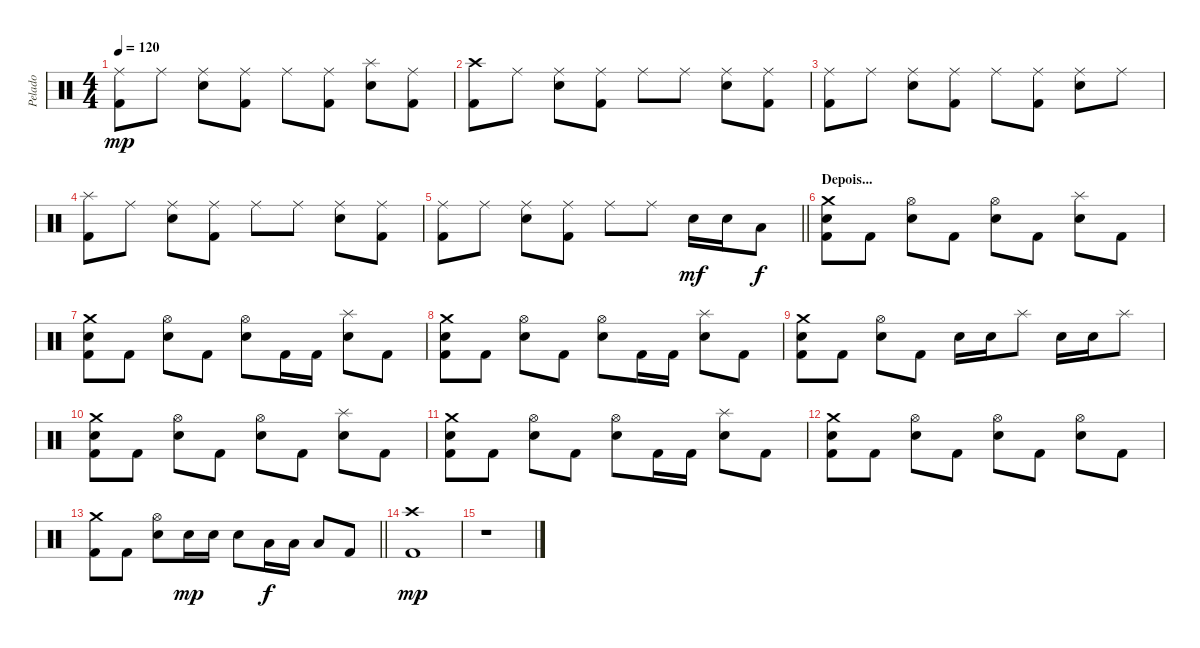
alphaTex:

\track ("Pelado" "Pelado") {instrument percussion}
\staff {score}
\articulation defaults
\ts (4 4)
\tempo 120
\clef neutral
\ks c
("Ride (middle)" "Kick (hit) 2").8{dy mp} "Ride (middle)".8 ("Ride (middle)" "Electric Snare (hit)").8 ("Ride (middle)" "Kick (hit) 2").8 "Ride (middle)".8 ("Ride (middle)" "Kick (hit) 2").8 ("Splash (hit)" "Electric Snare (hit)").8 ("Ride (middle)" "Kick (hit) 2").8 |
("Crash high (hit)" "Kick (hit) 2").8 "Ride (middle)".8 ("Ride (middle)" "Electric Snare (hit)").8 ("Ride (middle)" "Kick (hit) 2").8 "Ride (middle)".8 "Ride (middle)".8 ("Ride (middle)" "Electric Snare (hit)").8 ("Ride (middle)" "Kick (hit) 2").8 |
("Ride (middle)" "Kick (hit) 2").8 "Ride (middle)".8 ("Ride (middle)" "Electric Snare (hit)").8 ("Ride (middle)" "Kick (hit) 2").8 "Ride (middle)".8 ("Ride (middle)" "Kick (hit) 2").8 ("Ride (middle)" "Electric Snare (hit)").8 "Ride (middle)".8 |
("Splash (hit)" "Kick (hit) 2").8 "Ride (middle)".8 ("Ride (middle)" "Electric Snare (hit)").8 ("Ride (middle)" "Kick (hit) 2").8 "Ride (middle)".8 "Ride (middle)".8 ("Ride (middle)" "Electric Snare (hit)").8 ("Ride (middle)" "Kick (hit) 2").8 |
\barLineRight lightlight
("Ride (middle)" "Kick (hit) 2").8 "Ride (middle)".8 ("Ride (middle)" "Electric Snare (hit)").8 ("Ride (middle)" "Kick (hit) 2").8 "Ride (middle)".8 "Ride (middle)".8 "Electric Snare (hit)".16{dy mf} "Electric Snare (hit)".16 "Low Tom (hit)".8{dy f} |
\section ("" "Depois...")
("Crash medium (hit)" "Electric Snare (hit)" "Kick (hit) 2").8 "Kick (hit) 2".8 ("Hi-Hat (open)" "Electric Snare (hit)").8 "Kick (hit) 2".8 ("Hi-Hat (open)" "Electric Snare (hit)").8 "Kick (hit) 2".8 ("Splash (hit)" "Electric Snare (hit)").8 "Kick (hit) 2".8 |
("Crash medium (hit)" "Electric Snare (hit)" "Kick (hit) 2").8 "Kick (hit) 2".8 ("Hi-Hat (open)" "Electric Snare (hit)").8 "Kick (hit) 2".8 ("Hi-Hat (open)" "Electric Snare (hit)").8 "Kick (hit) 2".16 "Kick (hit) 2".16 ("Splash (hit)" "Electric Snare (hit)").8 "Kick (hit) 2".8 |
("Crash medium (hit)" "Electric Snare (hit)" "Kick (hit) 2").8 "Kick (hit) 2".8 ("Hi-Hat (open)" "Electric Snare (hit)").8 "Kick (hit) 2".8 ("Hi-Hat (open)" "Electric Snare (hit)").8 "Kick (hit) 2".16 "Kick (hit) 2".16 ("Splash (hit)" "Electric Snare (hit)").8 "Kick (hit) 2".8 |
("Crash medium (hit)" "Electric Snare (hit)" "Kick (hit) 2").8 "Kick (hit) 2".8 ("Hi-Hat (open)" "Electric Snare (hit)").8 "Kick (hit) 2".8 "Electric Snare (hit)".16 "Electric Snare (hit)".16 "Splash (hit)".8 "Electric Snare (hit)".16 "Electric Snare (hit)".16 "Splash (hit)".8 |
("Crash medium (hit)" "Electric Snare (hit)" "Kick (hit) 2").8 "Kick (hit) 2".8 ("Hi-Hat (open)" "Electric Snare (hit)").8 "Kick (hit) 2".8 ("Hi-Hat (open)" "Electric Snare (hit)").8 "Kick (hit) 2".8 ("Splash (hit)" "Electric Snare (hit)").8 "Kick (hit) 2".8 |
("Crash medium (hit)" "Electric Snare (hit)" "Kick (hit) 2").8 "Kick (hit) 2".8 ("Hi-Hat (open)" "Electric Snare (hit)").8 "Kick (hit) 2".8 ("Hi-Hat (open)" "Electric Snare (hit)").8 "Kick (hit) 2".16 "Kick (hit) 2".16 ("Splash (hit)" "Electric Snare (hit)").8 "Kick (hit) 2".8 |
("Crash medium (hit)" "Electric Snare (hit)" "Kick (hit) 2").8 "Kick (hit) 2".8 ("Hi-Hat (open)" "Electric Snare (hit)").8 "Kick (hit) 2".8 ("Hi-Hat (open)" "Electric Snare (hit)").8 "Kick (hit) 2".8 ("Hi-Hat (open)" "Electric Snare (hit)").8 "Kick (hit) 2".8 |
\barLineRight lightlight
("Crash medium (hit)" "Kick (hit) 2").8 "Kick (hit) 2".8 ("Hi-Hat (open)" "Electric Snare (hit)").8 "Electric Snare (hit)".16{dy mp} "Electric Snare (hit)".16 "Electric Snare (hit)".8 "Low Tom (hit)".16{dy f} "Low Tom (hit)".16 "Low Tom (hit)".8 "Kick (hit) 2".8 |
("Crash high (hit)" "Kick (hit) 2").1{dy mp} |
r.1
